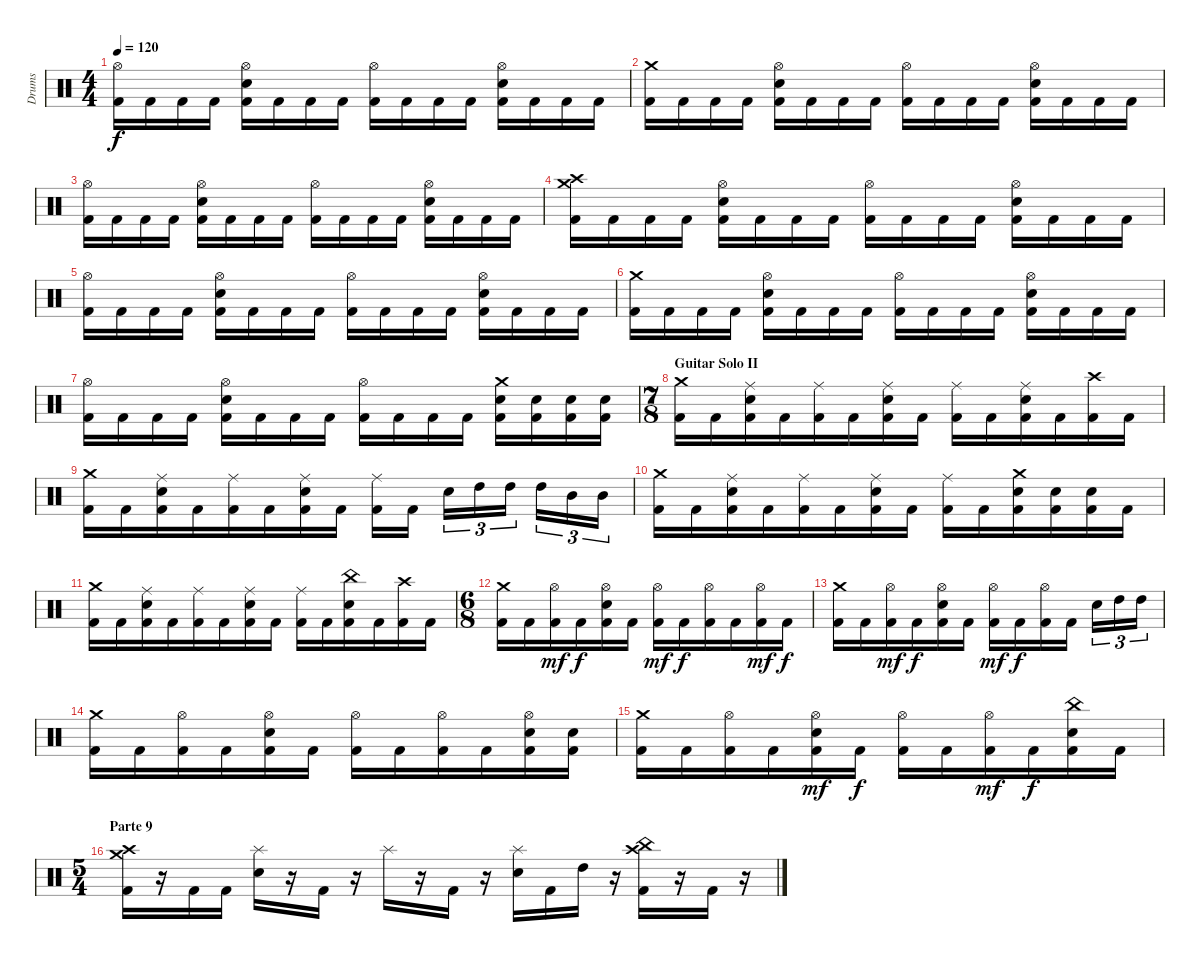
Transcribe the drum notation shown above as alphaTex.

\track ("Drums" "Drums") {instrument percussion}
\staff {score}
\articulation defaults
\ts (4 4)
\tempo 120
\clef neutral
\ks c
("Hi-Hat (open)" "Kick (hit) 2").16{dy f} "Kick (hit) 2".16 "Kick (hit) 2".16 "Kick (hit) 2".16 ("Hi-Hat (open)" "Electric Snare (hit)" "Kick (hit) 2").16 "Kick (hit) 2".16 "Kick (hit) 2".16 "Kick (hit) 2".16 ("Hi-Hat (open)" "Kick (hit) 2").16 "Kick (hit) 2".16 "Kick (hit) 2".16 "Kick (hit) 2".16 ("Hi-Hat (open)" "Electric Snare (hit)" "Kick (hit) 2").16 "Kick (hit) 2".16 "Kick (hit) 2".16 "Kick (hit) 2".16 |
("Crash medium (hit)" "Kick (hit) 2").16 "Kick (hit) 2".16 "Kick (hit) 2".16 "Kick (hit) 2".16 ("Hi-Hat (open)" "Electric Snare (hit)" "Kick (hit) 2").16 "Kick (hit) 2".16 "Kick (hit) 2".16 "Kick (hit) 2".16 ("Hi-Hat (open)" "Kick (hit) 2").16 "Kick (hit) 2".16 "Kick (hit) 2".16 "Kick (hit) 2".16 ("Hi-Hat (open)" "Electric Snare (hit)" "Kick (hit) 2").16 "Kick (hit) 2".16 "Kick (hit) 2".16 "Kick (hit) 2".16 |
("Hi-Hat (open)" "Kick (hit) 2").16 "Kick (hit) 2".16 "Kick (hit) 2".16 "Kick (hit) 2".16 ("Hi-Hat (open)" "Electric Snare (hit)" "Kick (hit) 2").16 "Kick (hit) 2".16 "Kick (hit) 2".16 "Kick (hit) 2".16 ("Hi-Hat (open)" "Kick (hit) 2").16 "Kick (hit) 2".16 "Kick (hit) 2".16 "Kick (hit) 2".16 ("Hi-Hat (open)" "Electric Snare (hit)" "Kick (hit) 2").16 "Kick (hit) 2".16 "Kick (hit) 2".16 "Kick (hit) 2".16 |
("Crash medium (hit)" "Crash high (hit)" "Kick (hit) 2").16 "Kick (hit) 2".16 "Kick (hit) 2".16 "Kick (hit) 2".16 ("Hi-Hat (open)" "Electric Snare (hit)" "Kick (hit) 2").16 "Kick (hit) 2".16 "Kick (hit) 2".16 "Kick (hit) 2".16 ("Hi-Hat (open)" "Kick (hit) 2").16 "Kick (hit) 2".16 "Kick (hit) 2".16 "Kick (hit) 2".16 ("Hi-Hat (open)" "Electric Snare (hit)" "Kick (hit) 2").16 "Kick (hit) 2".16 "Kick (hit) 2".16 "Kick (hit) 2".16 |
("Hi-Hat (open)" "Kick (hit) 2").16 "Kick (hit) 2".16 "Kick (hit) 2".16 "Kick (hit) 2".16 ("Hi-Hat (open)" "Electric Snare (hit)" "Kick (hit) 2").16 "Kick (hit) 2".16 "Kick (hit) 2".16 "Kick (hit) 2".16 ("Hi-Hat (open)" "Kick (hit) 2").16 "Kick (hit) 2".16 "Kick (hit) 2".16 "Kick (hit) 2".16 ("Hi-Hat (open)" "Electric Snare (hit)" "Kick (hit) 2").16 "Kick (hit) 2".16 "Kick (hit) 2".16 "Kick (hit) 2".16 |
("Crash medium (hit)" "Kick (hit) 2").16 "Kick (hit) 2".16 "Kick (hit) 2".16 "Kick (hit) 2".16 ("Hi-Hat (open)" "Electric Snare (hit)" "Kick (hit) 2").16 "Kick (hit) 2".16 "Kick (hit) 2".16 "Kick (hit) 2".16 ("Hi-Hat (open)" "Kick (hit) 2").16 "Kick (hit) 2".16 "Kick (hit) 2".16 "Kick (hit) 2".16 ("Hi-Hat (open)" "Electric Snare (hit)" "Kick (hit) 2").16 "Kick (hit) 2".16 "Kick (hit) 2".16 "Kick (hit) 2".16 |
("Hi-Hat (open)" "Kick (hit) 2").16 "Kick (hit) 2".16 "Kick (hit) 2".16 "Kick (hit) 2".16 ("Hi-Hat (open)" "Electric Snare (hit)" "Kick (hit) 2").16 "Kick (hit) 2".16 "Kick (hit) 2".16 "Kick (hit) 2".16 ("Hi-Hat (open)" "Kick (hit) 2").16 "Kick (hit) 2".16 "Kick (hit) 2".16 "Kick (hit) 2".16 ("Crash medium (hit)" "Electric Snare (hit)" "Kick (hit) 2").16 ("Electric Snare (hit)" "Kick (hit) 2").16 ("Electric Snare (hit)" "Kick (hit) 2").16 ("Electric Snare (hit)" "Kick (hit) 2").16 |
\ts (7 8)
\section ("" "Guitar Solo II")
("Crash medium (hit)" "Kick (hit) 2").16 "Kick (hit) 2".16 ("Ride (middle)" "Electric Snare (hit)" "Kick (hit) 2").16 "Kick (hit) 2".16 ("Ride (middle)" "Kick (hit) 2").16 "Kick (hit) 2".16 ("Ride (middle)" "Electric Snare (hit)" "Kick (hit) 2").16 "Kick (hit) 2".16 ("Ride (middle)" "Kick (hit) 2").16 "Kick (hit) 2".16 ("Ride (middle)" "Electric Snare (hit)" "Kick (hit) 2").16 "Kick (hit) 2".16 ("Crash high (hit)" "Kick (hit) 2").16 "Kick (hit) 2".16 |
("Crash medium (hit)" "Kick (hit) 2").16 "Kick (hit) 2".16 ("Ride (middle)" "Electric Snare (hit)" "Kick (hit) 2").16 "Kick (hit) 2".16 ("Ride (middle)" "Kick (hit) 2").16 "Kick (hit) 2".16 ("Ride (middle)" "Electric Snare (hit)" "Kick (hit) 2").16 "Kick (hit) 2".16 ("Ride (middle)" "Kick (hit) 2").16 "Kick (hit) 2".16 "Electric Snare (hit)".16{tu (3 2)} "High Tom (hit)".16{tu (3 2)} "High Tom (hit)".16{tu (3 2)} "High Tom (hit)".16{tu (3 2)} "Mid Tom (hit)".16{tu (3 2)} "Mid Tom (hit)".16{tu (3 2)} |
("Crash medium (hit)" "Kick (hit) 2").16 "Kick (hit) 2".16 ("Ride (middle)" "Electric Snare (hit)" "Kick (hit) 2").16 "Kick (hit) 2".16 ("Ride (middle)" "Kick (hit) 2").16 "Kick (hit) 2".16 ("Ride (middle)" "Electric Snare (hit)" "Kick (hit) 2").16 "Kick (hit) 2".16 ("Ride (middle)" "Kick (hit) 2").16 "Kick (hit) 2".16 ("Crash medium (hit)" "Electric Snare (hit)" "Kick (hit) 2").16 ("Electric Snare (hit)" "Kick (hit) 2").16 ("Electric Snare (hit)" "Kick (hit) 2").16 "Kick (hit) 2".16 |
("Crash medium (hit)" "Kick (hit) 2").16 "Kick (hit) 2".16 ("Ride (middle)" "Electric Snare (hit)" "Kick (hit) 2").16 "Kick (hit) 2".16 ("Ride (middle)" "Kick (hit) 2").16 "Kick (hit) 2".16 ("Ride (middle)" "Electric Snare (hit)" "Kick (hit) 2").16 "Kick (hit) 2".16 ("Ride (middle)" "Kick (hit) 2").16 "Kick (hit) 2".16 ("China (hit)" "Electric Snare (hit)" "Kick (hit) 2").16 "Kick (hit) 2".16 ("Crash high (hit)" "Kick (hit) 2").16 "Kick (hit) 2".16 |
\ts (6 8)
("Crash medium (hit)" "Kick (hit) 2").16 "Kick (hit) 2".16 ("Hi-Hat (open)" "Kick (hit) 2").16{dy mf} "Kick (hit) 2".16{dy f} ("Hi-Hat (open)" "Electric Snare (hit)" "Kick (hit) 2").16 "Kick (hit) 2".16 ("Hi-Hat (open)" "Kick (hit) 2").16{dy mf} "Kick (hit) 2".16{dy f} ("Hi-Hat (open)" "Kick (hit) 2").16 "Kick (hit) 2".16 ("Hi-Hat (open)" "Kick (hit) 2").16{dy mf} "Kick (hit) 2".16{dy f} |
("Crash medium (hit)" "Kick (hit) 2").16 "Kick (hit) 2".16 ("Hi-Hat (open)" "Kick (hit) 2").16{dy mf} "Kick (hit) 2".16{dy f} ("Hi-Hat (open)" "Electric Snare (hit)" "Kick (hit) 2").16 "Kick (hit) 2".16 ("Hi-Hat (open)" "Kick (hit) 2").16{dy mf} "Kick (hit) 2".16{dy f} ("Hi-Hat (open)" "Kick (hit) 2").16 "Kick (hit) 2".16 "Electric Snare (hit)".16{tu (3 2)} "High Tom (hit)".16{tu (3 2)} "High Tom (hit)".16{tu (3 2)} |
("Crash medium (hit)" "Kick (hit) 2").16 "Kick (hit) 2".16 ("Hi-Hat (open)" "Kick (hit) 2").16 "Kick (hit) 2".16 ("Hi-Hat (open)" "Electric Snare (hit)" "Kick (hit) 2").16 "Kick (hit) 2".16 ("Hi-Hat (open)" "Kick (hit) 2").16 "Kick (hit) 2".16 ("Hi-Hat (open)" "Kick (hit) 2").16 "Kick (hit) 2".16 ("Hi-Hat (open)" "Electric Snare (hit)" "Kick (hit) 2").16 ("Electric Snare (hit)" "Kick (hit) 2").16 |
("Crash medium (hit)" "Kick (hit) 2").16 "Kick (hit) 2".16 ("Hi-Hat (open)" "Kick (hit) 2").16 "Kick (hit) 2".16 ("Hi-Hat (open)" "Electric Snare (hit)" "Kick (hit) 2").16{dy mf} "Kick (hit) 2".16{dy f} ("Hi-Hat (open)" "Kick (hit) 2").16 "Kick (hit) 2".16 ("Hi-Hat (open)" "Kick (hit) 2").16{dy mf} "Kick (hit) 2".16{dy f} ("China (hit)" "Electric Snare (hit)" "Kick (hit) 2").16 "Kick (hit) 2".16 |
\ts (5 4)
\section ("" "Parte 9 ")
("Crash medium (hit)" "Crash high (hit)" "Kick (hit) 2").16 r.16 "Kick (hit) 2".16 "Kick (hit) 2".16 ("Splash (hit)" "Electric Snare (hit)").16 r.16 "Kick (hit) 2".16 r.16 "Splash (hit)".16 r.16 "Kick (hit) 2".16 r.16 ("Splash (hit)" "Electric Snare (hit)").16 "Kick (hit) 2".16 "High Tom (hit)".16 r.16 ("China (hit)" "Crash high (hit)" "Kick (hit) 2").16 r.16 "Kick (hit) 2".16 r.16
